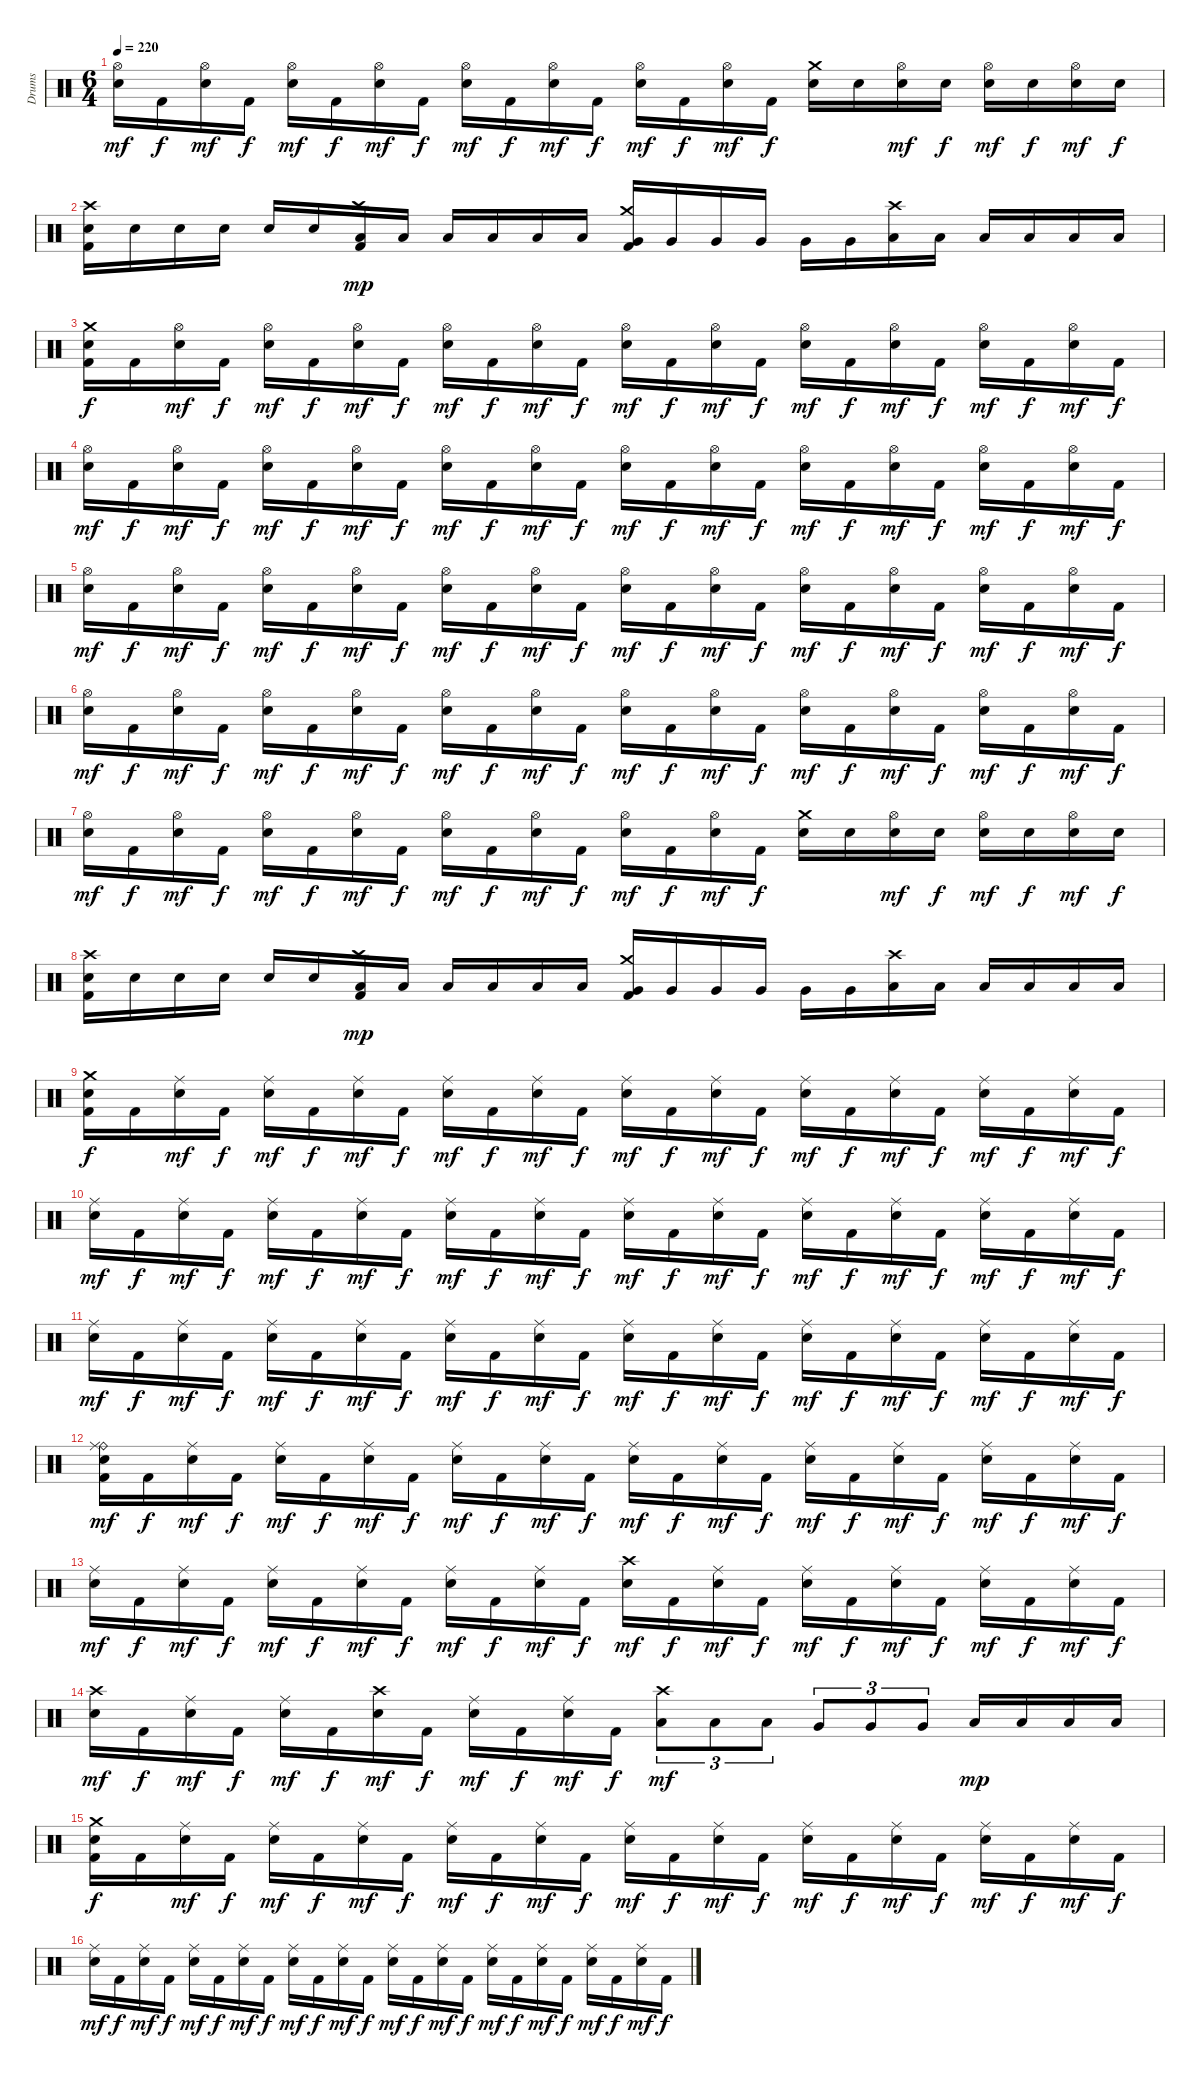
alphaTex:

\track ("Drums" "Drums") {instrument percussion}
\staff {score}
\articulation defaults
\ts (6 4)
\tempo 220
\clef neutral
\ks c
("Hi-Hat (open)" "Electric Snare (hit)").16{dy mf} "Kick (hit) 2".16{dy f} ("Hi-Hat (open)" "Electric Snare (hit)").16{dy mf} "Kick (hit) 2".16{dy f} ("Hi-Hat (open)" "Electric Snare (hit)").16{dy mf} "Kick (hit) 2".16{dy f} ("Hi-Hat (open)" "Electric Snare (hit)").16{dy mf} "Kick (hit) 2".16{dy f} ("Hi-Hat (open)" "Electric Snare (hit)").16{dy mf} "Kick (hit) 2".16{dy f} ("Hi-Hat (open)" "Electric Snare (hit)").16{dy mf} "Kick (hit) 2".16{dy f} ("Hi-Hat (open)" "Electric Snare (hit)").16{dy mf} "Kick (hit) 2".16{dy f} ("Hi-Hat (open)" "Electric Snare (hit)").16{dy mf} "Kick (hit) 2".16{dy f} ("Crash medium (hit)" "Electric Snare (hit)").16 "Electric Snare (hit)".16 ("Hi-Hat (open)" "Electric Snare (hit)").16{dy mf} "Electric Snare (hit)".16{dy f} ("Hi-Hat (open)" "Electric Snare (hit)").16{dy mf} "Electric Snare (hit)".16{dy f} ("Hi-Hat (open)" "Electric Snare (hit)").16{dy mf} "Electric Snare (hit)".16{dy f} |
("Crash high (hit)" "Electric Snare (hit)" "Kick (hit) 2").16 "Electric Snare (hit)".16 "Electric Snare (hit)".16 "Electric Snare (hit)".16 "Electric Snare (hit)".16 "Electric Snare (hit)".16 ("Crash high (hit)" "Low Tom (hit)" "Kick (hit) 2").16{dy mp} "Low Tom (hit)".16 "Low Tom (hit)".16 "Low Tom (hit)".16 "Low Tom (hit)".16 "Low Tom (hit)".16 ("Crash medium (hit)" "Very Low Tom (hit)" "Kick (hit) 2").16 "Very Low Tom (hit)".16 "Very Low Tom (hit)".16 "Very Low Tom (hit)".16 "Very Low Tom (hit)".16 "Very Low Tom (hit)".16 ("Crash high (hit)" "Low Floor Tom (hit)").16 "Low Floor Tom (hit)".16 "Low Floor Tom (hit)".16 "Low Floor Tom (hit)".16 "Low Floor Tom (hit)".16 "Low Floor Tom (hit)".16 |
("Crash medium (hit)" "Electric Snare (hit)" "Kick (hit) 2").16{dy f} "Kick (hit) 2".16 ("Hi-Hat (open)" "Electric Snare (hit)").16{dy mf} "Kick (hit) 2".16{dy f} ("Hi-Hat (open)" "Electric Snare (hit)").16{dy mf} "Kick (hit) 2".16{dy f} ("Hi-Hat (open)" "Electric Snare (hit)").16{dy mf} "Kick (hit) 2".16{dy f} ("Hi-Hat (open)" "Electric Snare (hit)").16{dy mf} "Kick (hit) 2".16{dy f} ("Hi-Hat (open)" "Electric Snare (hit)").16{dy mf} "Kick (hit) 2".16{dy f} ("Hi-Hat (open)" "Electric Snare (hit)").16{dy mf} "Kick (hit) 2".16{dy f} ("Hi-Hat (open)" "Electric Snare (hit)").16{dy mf} "Kick (hit) 2".16{dy f} ("Hi-Hat (open)" "Electric Snare (hit)").16{dy mf} "Kick (hit) 2".16{dy f} ("Hi-Hat (open)" "Electric Snare (hit)").16{dy mf} "Kick (hit) 2".16{dy f} ("Hi-Hat (open)" "Electric Snare (hit)").16{dy mf} "Kick (hit) 2".16{dy f} ("Hi-Hat (open)" "Electric Snare (hit)").16{dy mf} "Kick (hit) 2".16{dy f} |
("Hi-Hat (open)" "Electric Snare (hit)").16{dy mf} "Kick (hit) 2".16{dy f} ("Hi-Hat (open)" "Electric Snare (hit)").16{dy mf} "Kick (hit) 2".16{dy f} ("Hi-Hat (open)" "Electric Snare (hit)").16{dy mf} "Kick (hit) 2".16{dy f} ("Hi-Hat (open)" "Electric Snare (hit)").16{dy mf} "Kick (hit) 2".16{dy f} ("Hi-Hat (open)" "Electric Snare (hit)").16{dy mf} "Kick (hit) 2".16{dy f} ("Hi-Hat (open)" "Electric Snare (hit)").16{dy mf} "Kick (hit) 2".16{dy f} ("Hi-Hat (open)" "Electric Snare (hit)").16{dy mf} "Kick (hit) 2".16{dy f} ("Hi-Hat (open)" "Electric Snare (hit)").16{dy mf} "Kick (hit) 2".16{dy f} ("Hi-Hat (open)" "Electric Snare (hit)").16{dy mf} "Kick (hit) 2".16{dy f} ("Hi-Hat (open)" "Electric Snare (hit)").16{dy mf} "Kick (hit) 2".16{dy f} ("Hi-Hat (open)" "Electric Snare (hit)").16{dy mf} "Kick (hit) 2".16{dy f} ("Hi-Hat (open)" "Electric Snare (hit)").16{dy mf} "Kick (hit) 2".16{dy f} |
("Hi-Hat (open)" "Electric Snare (hit)").16{dy mf} "Kick (hit) 2".16{dy f} ("Hi-Hat (open)" "Electric Snare (hit)").16{dy mf} "Kick (hit) 2".16{dy f} ("Hi-Hat (open)" "Electric Snare (hit)").16{dy mf} "Kick (hit) 2".16{dy f} ("Hi-Hat (open)" "Electric Snare (hit)").16{dy mf} "Kick (hit) 2".16{dy f} ("Hi-Hat (open)" "Electric Snare (hit)").16{dy mf} "Kick (hit) 2".16{dy f} ("Hi-Hat (open)" "Electric Snare (hit)").16{dy mf} "Kick (hit) 2".16{dy f} ("Hi-Hat (open)" "Electric Snare (hit)").16{dy mf} "Kick (hit) 2".16{dy f} ("Hi-Hat (open)" "Electric Snare (hit)").16{dy mf} "Kick (hit) 2".16{dy f} ("Hi-Hat (open)" "Electric Snare (hit)").16{dy mf} "Kick (hit) 2".16{dy f} ("Hi-Hat (open)" "Electric Snare (hit)").16{dy mf} "Kick (hit) 2".16{dy f} ("Hi-Hat (open)" "Electric Snare (hit)").16{dy mf} "Kick (hit) 2".16{dy f} ("Hi-Hat (open)" "Electric Snare (hit)").16{dy mf} "Kick (hit) 2".16{dy f} |
("Hi-Hat (open)" "Electric Snare (hit)").16{dy mf} "Kick (hit) 2".16{dy f} ("Hi-Hat (open)" "Electric Snare (hit)").16{dy mf} "Kick (hit) 2".16{dy f} ("Hi-Hat (open)" "Electric Snare (hit)").16{dy mf} "Kick (hit) 2".16{dy f} ("Hi-Hat (open)" "Electric Snare (hit)").16{dy mf} "Kick (hit) 2".16{dy f} ("Hi-Hat (open)" "Electric Snare (hit)").16{dy mf} "Kick (hit) 2".16{dy f} ("Hi-Hat (open)" "Electric Snare (hit)").16{dy mf} "Kick (hit) 2".16{dy f} ("Hi-Hat (open)" "Electric Snare (hit)").16{dy mf} "Kick (hit) 2".16{dy f} ("Hi-Hat (open)" "Electric Snare (hit)").16{dy mf} "Kick (hit) 2".16{dy f} ("Hi-Hat (open)" "Electric Snare (hit)").16{dy mf} "Kick (hit) 2".16{dy f} ("Hi-Hat (open)" "Electric Snare (hit)").16{dy mf} "Kick (hit) 2".16{dy f} ("Hi-Hat (open)" "Electric Snare (hit)").16{dy mf} "Kick (hit) 2".16{dy f} ("Hi-Hat (open)" "Electric Snare (hit)").16{dy mf} "Kick (hit) 2".16{dy f} |
("Hi-Hat (open)" "Electric Snare (hit)").16{dy mf} "Kick (hit) 2".16{dy f} ("Hi-Hat (open)" "Electric Snare (hit)").16{dy mf} "Kick (hit) 2".16{dy f} ("Hi-Hat (open)" "Electric Snare (hit)").16{dy mf} "Kick (hit) 2".16{dy f} ("Hi-Hat (open)" "Electric Snare (hit)").16{dy mf} "Kick (hit) 2".16{dy f} ("Hi-Hat (open)" "Electric Snare (hit)").16{dy mf} "Kick (hit) 2".16{dy f} ("Hi-Hat (open)" "Electric Snare (hit)").16{dy mf} "Kick (hit) 2".16{dy f} ("Hi-Hat (open)" "Electric Snare (hit)").16{dy mf} "Kick (hit) 2".16{dy f} ("Hi-Hat (open)" "Electric Snare (hit)").16{dy mf} "Kick (hit) 2".16{dy f} ("Crash medium (hit)" "Electric Snare (hit)").16 "Electric Snare (hit)".16 ("Hi-Hat (open)" "Electric Snare (hit)").16{dy mf} "Electric Snare (hit)".16{dy f} ("Hi-Hat (open)" "Electric Snare (hit)").16{dy mf} "Electric Snare (hit)".16{dy f} ("Hi-Hat (open)" "Electric Snare (hit)").16{dy mf} "Electric Snare (hit)".16{dy f} |
("Crash high (hit)" "Electric Snare (hit)" "Kick (hit) 2").16 "Electric Snare (hit)".16 "Electric Snare (hit)".16 "Electric Snare (hit)".16 "Electric Snare (hit)".16 "Electric Snare (hit)".16 ("Crash high (hit)" "Low Tom (hit)" "Kick (hit) 2").16{dy mp} "Low Tom (hit)".16 "Low Tom (hit)".16 "Low Tom (hit)".16 "Low Tom (hit)".16 "Low Tom (hit)".16 ("Crash medium (hit)" "Very Low Tom (hit)" "Kick (hit) 2").16 "Very Low Tom (hit)".16 "Very Low Tom (hit)".16 "Very Low Tom (hit)".16 "Very Low Tom (hit)".16 "Very Low Tom (hit)".16 ("Crash high (hit)" "Low Floor Tom (hit)").16 "Low Floor Tom (hit)".16 "Low Floor Tom (hit)".16 "Low Floor Tom (hit)".16 "Low Floor Tom (hit)".16 "Low Floor Tom (hit)".16 |
("Crash medium (hit)" "Electric Snare (hit)" "Kick (hit) 2").16{dy f} "Kick (hit) 2".16 ("Ride (middle)" "Electric Snare (hit)").16{dy mf} "Kick (hit) 2".16{dy f} ("Ride (middle)" "Electric Snare (hit)").16{dy mf} "Kick (hit) 2".16{dy f} ("Ride (middle)" "Electric Snare (hit)").16{dy mf} "Kick (hit) 2".16{dy f} ("Ride (middle)" "Electric Snare (hit)").16{dy mf} "Kick (hit) 2".16{dy f} ("Ride (middle)" "Electric Snare (hit)").16{dy mf} "Kick (hit) 2".16{dy f} ("Ride (middle)" "Electric Snare (hit)").16{dy mf} "Kick (hit) 2".16{dy f} ("Ride (middle)" "Electric Snare (hit)").16{dy mf} "Kick (hit) 2".16{dy f} ("Ride (middle)" "Electric Snare (hit)").16{dy mf} "Kick (hit) 2".16{dy f} ("Ride (middle)" "Electric Snare (hit)").16{dy mf} "Kick (hit) 2".16{dy f} ("Ride (middle)" "Electric Snare (hit)").16{dy mf} "Kick (hit) 2".16{dy f} ("Ride (middle)" "Electric Snare (hit)").16{dy mf} "Kick (hit) 2".16{dy f} |
("Ride (middle)" "Electric Snare (hit)").16{dy mf} "Kick (hit) 2".16{dy f} ("Ride (middle)" "Electric Snare (hit)").16{dy mf} "Kick (hit) 2".16{dy f} ("Ride (middle)" "Electric Snare (hit)").16{dy mf} "Kick (hit) 2".16{dy f} ("Ride (middle)" "Electric Snare (hit)").16{dy mf} "Kick (hit) 2".16{dy f} ("Ride (middle)" "Electric Snare (hit)").16{dy mf} "Kick (hit) 2".16{dy f} ("Ride (middle)" "Electric Snare (hit)").16{dy mf} "Kick (hit) 2".16{dy f} ("Ride (middle)" "Electric Snare (hit)").16{dy mf} "Kick (hit) 2".16{dy f} ("Ride (middle)" "Electric Snare (hit)").16{dy mf} "Kick (hit) 2".16{dy f} ("Ride (middle)" "Electric Snare (hit)").16{dy mf} "Kick (hit) 2".16{dy f} ("Ride (middle)" "Electric Snare (hit)").16{dy mf} "Kick (hit) 2".16{dy f} ("Ride (middle)" "Electric Snare (hit)").16{dy mf} "Kick (hit) 2".16{dy f} ("Ride (middle)" "Electric Snare (hit)").16{dy mf} "Kick (hit) 2".16{dy f} |
("Ride (middle)" "Electric Snare (hit)").16{dy mf} "Kick (hit) 2".16{dy f} ("Ride (middle)" "Electric Snare (hit)").16{dy mf} "Kick (hit) 2".16{dy f} ("Ride (middle)" "Electric Snare (hit)").16{dy mf} "Kick (hit) 2".16{dy f} ("Ride (middle)" "Electric Snare (hit)").16{dy mf} "Kick (hit) 2".16{dy f} ("Ride (middle)" "Electric Snare (hit)").16{dy mf} "Kick (hit) 2".16{dy f} ("Ride (middle)" "Electric Snare (hit)").16{dy mf} "Kick (hit) 2".16{dy f} ("Ride (middle)" "Electric Snare (hit)").16{dy mf} "Kick (hit) 2".16{dy f} ("Ride (middle)" "Electric Snare (hit)").16{dy mf} "Kick (hit) 2".16{dy f} ("Ride (middle)" "Electric Snare (hit)").16{dy mf} "Kick (hit) 2".16{dy f} ("Ride (middle)" "Electric Snare (hit)").16{dy mf} "Kick (hit) 2".16{dy f} ("Ride (middle)" "Electric Snare (hit)").16{dy mf} "Kick (hit) 2".16{dy f} ("Ride (middle)" "Electric Snare (hit)").16{dy mf} "Kick (hit) 2".16{dy f} |
("Ride (bell)" "Ride (middle)" "Electric Snare (hit)" "Kick (hit) 2").16{dy mf} "Kick (hit) 2".16{dy f} ("Ride (middle)" "Electric Snare (hit)").16{dy mf} "Kick (hit) 2".16{dy f} ("Ride (middle)" "Electric Snare (hit)").16{dy mf} "Kick (hit) 2".16{dy f} ("Ride (middle)" "Electric Snare (hit)").16{dy mf} "Kick (hit) 2".16{dy f} ("Ride (middle)" "Electric Snare (hit)").16{dy mf} "Kick (hit) 2".16{dy f} ("Ride (middle)" "Electric Snare (hit)").16{dy mf} "Kick (hit) 2".16{dy f} ("Ride (middle)" "Electric Snare (hit)").16{dy mf} "Kick (hit) 2".16{dy f} ("Ride (middle)" "Electric Snare (hit)").16{dy mf} "Kick (hit) 2".16{dy f} ("Ride (middle)" "Electric Snare (hit)").16{dy mf} "Kick (hit) 2".16{dy f} ("Ride (middle)" "Electric Snare (hit)").16{dy mf} "Kick (hit) 2".16{dy f} ("Ride (middle)" "Electric Snare (hit)").16{dy mf} "Kick (hit) 2".16{dy f} ("Ride (middle)" "Electric Snare (hit)").16{dy mf} "Kick (hit) 2".16{dy f} |
("Ride (middle)" "Electric Snare (hit)").16{dy mf} "Kick (hit) 2".16{dy f} ("Ride (middle)" "Electric Snare (hit)").16{dy mf} "Kick (hit) 2".16{dy f} ("Ride (middle)" "Electric Snare (hit)").16{dy mf} "Kick (hit) 2".16{dy f} ("Ride (middle)" "Electric Snare (hit)").16{dy mf} "Kick (hit) 2".16{dy f} ("Ride (middle)" "Electric Snare (hit)").16{dy mf} "Kick (hit) 2".16{dy f} ("Ride (middle)" "Electric Snare (hit)").16{dy mf} "Kick (hit) 2".16{dy f} ("Crash high (hit)" "Electric Snare (hit)").16{dy mf} "Kick (hit) 2".16{dy f} ("Ride (middle)" "Electric Snare (hit)").16{dy mf} "Kick (hit) 2".16{dy f} ("Ride (middle)" "Electric Snare (hit)").16{dy mf} "Kick (hit) 2".16{dy f} ("Ride (middle)" "Electric Snare (hit)").16{dy mf} "Kick (hit) 2".16{dy f} ("Ride (middle)" "Electric Snare (hit)").16{dy mf} "Kick (hit) 2".16{dy f} ("Ride (middle)" "Electric Snare (hit)").16{dy mf} "Kick (hit) 2".16{dy f} |
("Crash high (hit)" "Electric Snare (hit)").16{dy mf} "Kick (hit) 2".16{dy f} ("Ride (middle)" "Electric Snare (hit)").16{dy mf} "Kick (hit) 2".16{dy f} ("Ride (middle)" "Electric Snare (hit)").16{dy mf} "Kick (hit) 2".16{dy f} ("Crash high (hit)" "Electric Snare (hit)").16{dy mf} "Kick (hit) 2".16{dy f} ("Ride (middle)" "Electric Snare (hit)").16{dy mf} "Kick (hit) 2".16{dy f} ("Ride (middle)" "Electric Snare (hit)").16{dy mf} "Kick (hit) 2".16{dy f} ("Crash high (hit)" "Low Tom (hit)").8{tu (3 2) dy mf} "Low Tom (hit)".8{tu (3 2)} "Low Tom (hit)".8{tu (3 2)} "Very Low Tom (hit)".8{tu (3 2)} "Very Low Tom (hit)".8{tu (3 2)} "Very Low Tom (hit)".8{tu (3 2)} "Low Floor Tom (hit)".16{dy mp} "Low Floor Tom (hit)".16 "Low Floor Tom (hit)".16 "Low Floor Tom (hit)".16 |
("Crash medium (hit)" "Electric Snare (hit)" "Kick (hit) 2").16{dy f} "Kick (hit) 2".16 ("Ride (middle)" "Electric Snare (hit)").16{dy mf} "Kick (hit) 2".16{dy f} ("Ride (middle)" "Electric Snare (hit)").16{dy mf} "Kick (hit) 2".16{dy f} ("Ride (middle)" "Electric Snare (hit)").16{dy mf} "Kick (hit) 2".16{dy f} ("Ride (middle)" "Electric Snare (hit)").16{dy mf} "Kick (hit) 2".16{dy f} ("Ride (middle)" "Electric Snare (hit)").16{dy mf} "Kick (hit) 2".16{dy f} ("Ride (middle)" "Electric Snare (hit)").16{dy mf} "Kick (hit) 2".16{dy f} ("Ride (middle)" "Electric Snare (hit)").16{dy mf} "Kick (hit) 2".16{dy f} ("Ride (middle)" "Electric Snare (hit)").16{dy mf} "Kick (hit) 2".16{dy f} ("Ride (middle)" "Electric Snare (hit)").16{dy mf} "Kick (hit) 2".16{dy f} ("Ride (middle)" "Electric Snare (hit)").16{dy mf} "Kick (hit) 2".16{dy f} ("Ride (middle)" "Electric Snare (hit)").16{dy mf} "Kick (hit) 2".16{dy f} |
("Ride (middle)" "Electric Snare (hit)").16{dy mf} "Kick (hit) 2".16{dy f} ("Ride (middle)" "Electric Snare (hit)").16{dy mf} "Kick (hit) 2".16{dy f} ("Ride (middle)" "Electric Snare (hit)").16{dy mf} "Kick (hit) 2".16{dy f} ("Ride (middle)" "Electric Snare (hit)").16{dy mf} "Kick (hit) 2".16{dy f} ("Ride (middle)" "Electric Snare (hit)").16{dy mf} "Kick (hit) 2".16{dy f} ("Ride (middle)" "Electric Snare (hit)").16{dy mf} "Kick (hit) 2".16{dy f} ("Ride (middle)" "Electric Snare (hit)").16{dy mf} "Kick (hit) 2".16{dy f} ("Ride (middle)" "Electric Snare (hit)").16{dy mf} "Kick (hit) 2".16{dy f} ("Ride (middle)" "Electric Snare (hit)").16{dy mf} "Kick (hit) 2".16{dy f} ("Ride (middle)" "Electric Snare (hit)").16{dy mf} "Kick (hit) 2".16{dy f} ("Ride (middle)" "Electric Snare (hit)").16{dy mf} "Kick (hit) 2".16{dy f} ("Ride (middle)" "Electric Snare (hit)").16{dy mf} "Kick (hit) 2".16{dy f}
